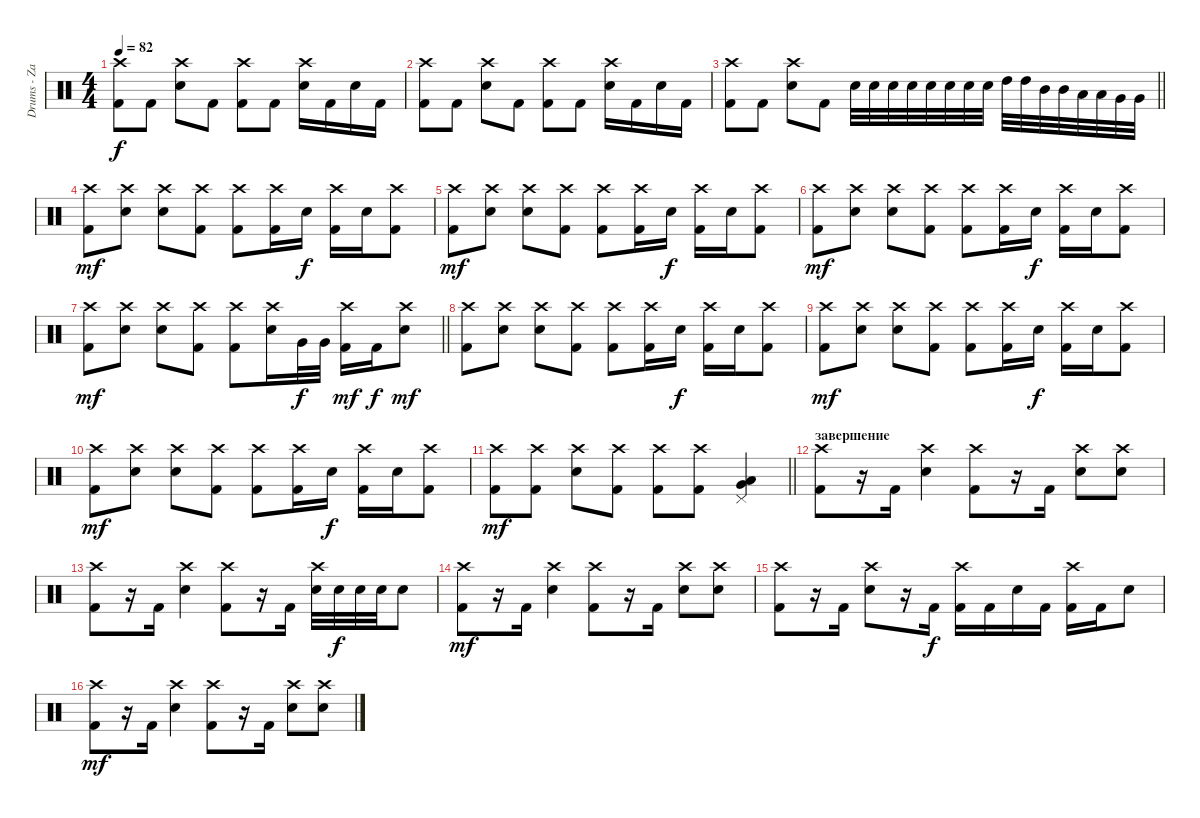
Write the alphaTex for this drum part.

\track ("Drums - Zac Farro" "Drums - Za") {instrument percussion}
\staff {score}
\articulation defaults
\ts (4 4)
\tempo 82
\clef neutral
\ks c
("Crash high (hit)" "Kick (hit) 2").8{dy f} "Kick (hit) 2".8 ("Crash high (hit)" "Snare (hit) 2").8 "Kick (hit) 2".8 ("Crash high (hit)" "Kick (hit) 2").8 "Kick (hit) 2".8 ("Crash high (hit)" "Snare (hit) 2").16 "Kick (hit) 2".16 "Snare (hit) 2".16 "Kick (hit) 2".16 |
("Crash high (hit)" "Kick (hit) 2").8 "Kick (hit) 2".8 ("Crash high (hit)" "Snare (hit) 2").8 "Kick (hit) 2".8 ("Crash high (hit)" "Kick (hit) 2").8 "Kick (hit) 2".8 ("Crash high (hit)" "Snare (hit) 2").16 "Kick (hit) 2".16 "Snare (hit) 2".16 "Kick (hit) 2".16 |
\barLineRight lightlight
("Crash high (hit)" "Kick (hit) 2").8 "Kick (hit) 2".8 ("Crash high (hit)" "Snare (hit) 2").8 "Kick (hit) 2".8 "Snare (hit) 2".32 "Snare (hit) 2".32 "Snare (hit) 2".32 "Snare (hit) 2".32 "Snare (hit) 2".32 "Snare (hit) 2".32 "Snare (hit) 2".32 "Snare (hit) 2".32 "High Tom (hit)".32 "High Tom (hit)".32 "Mid Tom (hit)".32 "Mid Tom (hit)".32 "Low Tom (hit)".32 "Low Tom (hit)".32 "Very Low Tom (hit)".32 "Very Low Tom (hit)".32 |
("Crash high (hit)" "Kick (hit) 2").8{dy mf} ("Crash high (hit)" "Snare (hit) 2").8 ("Crash high (hit)" "Snare (hit) 2").8 ("Crash high (hit)" "Kick (hit) 2").8 ("Crash high (hit)" "Kick (hit) 2").8 ("Crash high (hit)" "Kick (hit) 2").16 "Snare (hit) 2".16{dy f} ("Crash high (hit)" "Kick (hit) 2").16 "Snare (hit) 2".16 ("Crash high (hit)" "Kick (hit) 2").8 |
("Crash high (hit)" "Kick (hit) 2").8{dy mf} ("Crash high (hit)" "Snare (hit) 2").8 ("Crash high (hit)" "Snare (hit) 2").8 ("Crash high (hit)" "Kick (hit) 2").8 ("Crash high (hit)" "Kick (hit) 2").8 ("Crash high (hit)" "Kick (hit) 2").16 "Snare (hit) 2".16{dy f} ("Crash high (hit)" "Kick (hit) 2").16 "Snare (hit) 2".16 ("Crash high (hit)" "Kick (hit) 2").8 |
("Crash high (hit)" "Kick (hit) 2").8{dy mf} ("Crash high (hit)" "Snare (hit) 2").8 ("Crash high (hit)" "Snare (hit) 2").8 ("Crash high (hit)" "Kick (hit) 2").8 ("Crash high (hit)" "Kick (hit) 2").8 ("Crash high (hit)" "Kick (hit) 2").16 "Snare (hit) 2".16{dy f} ("Crash high (hit)" "Kick (hit) 2").16 "Snare (hit) 2".16 ("Crash high (hit)" "Kick (hit) 2").8 |
\barLineRight lightlight
("Crash high (hit)" "Kick (hit) 2").8{dy mf} ("Crash high (hit)" "Snare (hit) 2").8 ("Crash high (hit)" "Snare (hit) 2").8 ("Crash high (hit)" "Kick (hit) 2").8 ("Crash high (hit)" "Kick (hit) 2").8 ("Crash high (hit)" "Snare (hit) 2").16 "Very Low Tom (hit)".32{dy f} "Very Low Tom (hit)".32 ("Crash high (hit)" "Kick (hit) 2").16{dy mf} "Kick (hit) 2".16{dy f} ("Crash high (hit)" "Snare (hit) 2").8{dy mf} |
("Crash high (hit)" "Kick (hit) 2").8 ("Crash high (hit)" "Snare (hit) 2").8 ("Crash high (hit)" "Snare (hit) 2").8 ("Crash high (hit)" "Kick (hit) 2").8 ("Crash high (hit)" "Kick (hit) 2").8 ("Crash high (hit)" "Kick (hit) 2").16 "Snare (hit) 2".16{dy f} ("Crash high (hit)" "Kick (hit) 2").16 "Snare (hit) 2".16 ("Crash high (hit)" "Kick (hit) 2").8 |
("Crash high (hit)" "Kick (hit) 2").8{dy mf} ("Crash high (hit)" "Snare (hit) 2").8 ("Crash high (hit)" "Snare (hit) 2").8 ("Crash high (hit)" "Kick (hit) 2").8 ("Crash high (hit)" "Kick (hit) 2").8 ("Crash high (hit)" "Kick (hit) 2").16 "Snare (hit) 2".16{dy f} ("Crash high (hit)" "Kick (hit) 2").16 "Snare (hit) 2".16 ("Crash high (hit)" "Kick (hit) 2").8 |
("Crash high (hit)" "Kick (hit) 2").8{dy mf} ("Crash high (hit)" "Snare (hit) 2").8 ("Crash high (hit)" "Snare (hit) 2").8 ("Crash high (hit)" "Kick (hit) 2").8 ("Crash high (hit)" "Kick (hit) 2").8 ("Crash high (hit)" "Kick (hit) 2").16 "Snare (hit) 2".16{dy f} ("Crash high (hit)" "Kick (hit) 2").16 "Snare (hit) 2".16 ("Crash high (hit)" "Kick (hit) 2").8 |
\barLineRight lightlight
("Crash high (hit)" "Kick (hit) 2").8{dy mf} ("Crash high (hit)" "Kick (hit) 2").8 ("Crash high (hit)" "Snare (hit) 2").8 ("Crash high (hit)" "Kick (hit) 2").8 ("Crash high (hit)" "Kick (hit) 2").8 ("Crash high (hit)" "Kick (hit) 2").8 ("Pedal Hi-Hat (hit)" "Low Tom (hit)" "Very Low Tom (hit)").4 |
\section ("" "завершение")
("Crash high (hit)" "Kick (hit) 2").8 r.16 "Kick (hit) 2".16 ("Crash high (hit)" "Snare (hit) 2").4 ("Crash high (hit)" "Kick (hit) 2").8 r.16 "Kick (hit) 2".16 ("Crash high (hit)" "Snare (hit) 2").8 ("Crash high (hit)" "Snare (hit) 2").8 |
("Crash high (hit)" "Kick (hit) 2").8 r.16 "Kick (hit) 2".16 ("Crash high (hit)" "Snare (hit) 2").4 ("Crash high (hit)" "Kick (hit) 2").8 r.16 "Kick (hit) 2".16 ("Crash high (hit)" "Snare (hit) 2").32 "Snare (hit) 2".32{dy f} "Snare (hit) 2".32 "Snare (hit) 2".32 "Snare (hit) 2".8 |
("Crash high (hit)" "Kick (hit) 2").8{dy mf} r.16 "Kick (hit) 2".16 ("Crash high (hit)" "Snare (hit) 2").4 ("Crash high (hit)" "Kick (hit) 2").8 r.16 "Kick (hit) 2".16 ("Crash high (hit)" "Snare (hit) 2").8 ("Crash high (hit)" "Snare (hit) 2").8 |
("Crash high (hit)" "Kick (hit) 2").8 r.16 "Kick (hit) 2".16 ("Crash high (hit)" "Snare (hit) 2").8 r.16 "Kick (hit) 2".16{dy f} ("Crash high (hit)" "Kick (hit) 2").16 "Kick (hit) 2".16 "Snare (hit) 2".16 "Kick (hit) 2".16 ("Crash high (hit)" "Kick (hit) 2").16 "Kick (hit) 2".16 "Snare (hit) 2".8 |
("Crash high (hit)" "Kick (hit) 2").8{dy mf} r.16 "Kick (hit) 2".16 ("Crash high (hit)" "Snare (hit) 2").4 ("Crash high (hit)" "Kick (hit) 2").8 r.16 "Kick (hit) 2".16 ("Crash high (hit)" "Snare (hit) 2").8 ("Crash high (hit)" "Snare (hit) 2").8
